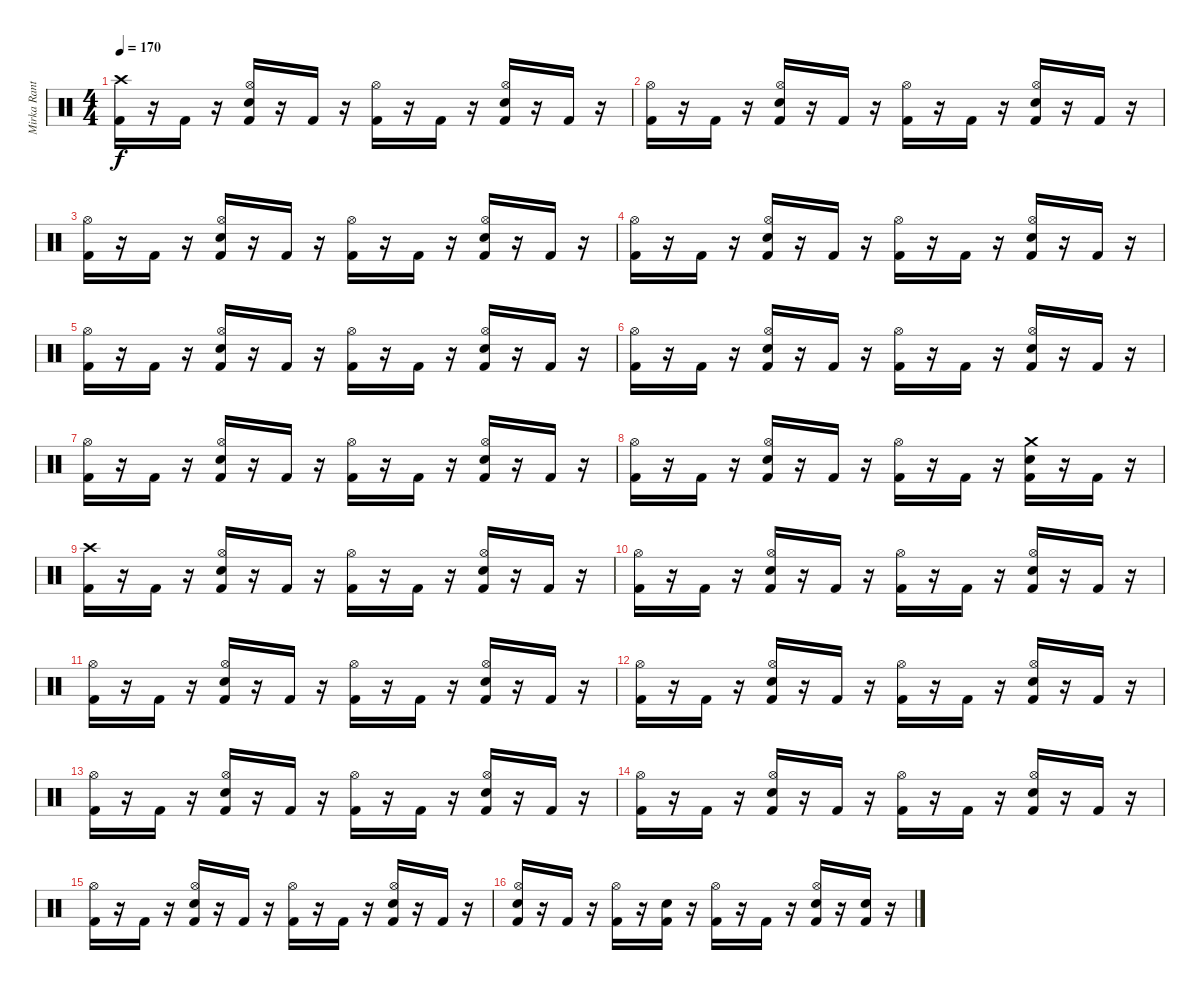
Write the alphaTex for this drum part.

\track ("Mirka Rantanen" "Mirka Rant") {instrument percussion}
\staff {score}
\articulation defaults
\ts (4 4)
\tempo 170
\clef neutral
\ks c
("Crash high (hit)" "Kick (hit) 2").16{dy f} r.16 "Kick (hit) 2".16 r.16 ("Hi-Hat (open)" "Snare (hit) 2" "Kick (hit) 2").16 r.16 "Kick (hit) 2".16 r.16 ("Hi-Hat (open)" "Kick (hit) 2").16 r.16 "Kick (hit) 2".16 r.16 ("Hi-Hat (open)" "Snare (hit) 2" "Kick (hit) 2").16 r.16 "Kick (hit) 2".16 r.16 |
("Hi-Hat (open)" "Kick (hit) 2").16 r.16 "Kick (hit) 2".16 r.16 ("Hi-Hat (open)" "Snare (hit) 2" "Kick (hit) 2").16 r.16 "Kick (hit) 2".16 r.16 ("Hi-Hat (open)" "Kick (hit) 2").16 r.16 "Kick (hit) 2".16 r.16 ("Hi-Hat (open)" "Snare (hit) 2" "Kick (hit) 2").16 r.16 "Kick (hit) 2".16 r.16 |
("Hi-Hat (open)" "Kick (hit) 2").16 r.16 "Kick (hit) 2".16 r.16 ("Hi-Hat (open)" "Snare (hit) 2" "Kick (hit) 2").16 r.16 "Kick (hit) 2".16 r.16 ("Hi-Hat (open)" "Kick (hit) 2").16 r.16 "Kick (hit) 2".16 r.16 ("Hi-Hat (open)" "Snare (hit) 2" "Kick (hit) 2").16 r.16 "Kick (hit) 2".16 r.16 |
("Hi-Hat (open)" "Kick (hit) 2").16 r.16 "Kick (hit) 2".16 r.16 ("Hi-Hat (open)" "Snare (hit) 2" "Kick (hit) 2").16 r.16 "Kick (hit) 2".16 r.16 ("Hi-Hat (open)" "Kick (hit) 2").16 r.16 "Kick (hit) 2".16 r.16 ("Hi-Hat (open)" "Snare (hit) 2" "Kick (hit) 2").16 r.16 "Kick (hit) 2".16 r.16 |
("Hi-Hat (open)" "Kick (hit) 2").16 r.16 "Kick (hit) 2".16 r.16 ("Hi-Hat (open)" "Snare (hit) 2" "Kick (hit) 2").16 r.16 "Kick (hit) 2".16 r.16 ("Hi-Hat (open)" "Kick (hit) 2").16 r.16 "Kick (hit) 2".16 r.16 ("Hi-Hat (open)" "Snare (hit) 2" "Kick (hit) 2").16 r.16 "Kick (hit) 2".16 r.16 |
("Hi-Hat (open)" "Kick (hit) 2").16 r.16 "Kick (hit) 2".16 r.16 ("Hi-Hat (open)" "Snare (hit) 2" "Kick (hit) 2").16 r.16 "Kick (hit) 2".16 r.16 ("Hi-Hat (open)" "Kick (hit) 2").16 r.16 "Kick (hit) 2".16 r.16 ("Hi-Hat (open)" "Snare (hit) 2" "Kick (hit) 2").16 r.16 "Kick (hit) 2".16 r.16 |
("Hi-Hat (open)" "Kick (hit) 2").16 r.16 "Kick (hit) 2".16 r.16 ("Hi-Hat (open)" "Snare (hit) 2" "Kick (hit) 2").16 r.16 "Kick (hit) 2".16 r.16 ("Hi-Hat (open)" "Kick (hit) 2").16 r.16 "Kick (hit) 2".16 r.16 ("Hi-Hat (open)" "Snare (hit) 2" "Kick (hit) 2").16 r.16 "Kick (hit) 2".16 r.16 |
("Hi-Hat (open)" "Kick (hit) 2").16 r.16 "Kick (hit) 2".16 r.16 ("Hi-Hat (open)" "Snare (hit) 2" "Kick (hit) 2").16 r.16 "Kick (hit) 2".16 r.16 ("Hi-Hat (open)" "Kick (hit) 2").16 r.16 "Kick (hit) 2".16 r.16 ("Crash medium (hit)" "Snare (hit) 2" "Kick (hit) 2").16 r.16 "Kick (hit) 2".16 r.16 |
("Crash high (hit)" "Kick (hit) 2").16 r.16 "Kick (hit) 2".16 r.16 ("Hi-Hat (open)" "Snare (hit) 2" "Kick (hit) 2").16 r.16 "Kick (hit) 2".16 r.16 ("Hi-Hat (open)" "Kick (hit) 2").16 r.16 "Kick (hit) 2".16 r.16 ("Hi-Hat (open)" "Snare (hit) 2" "Kick (hit) 2").16 r.16 "Kick (hit) 2".16 r.16 |
("Hi-Hat (open)" "Kick (hit) 2").16 r.16 "Kick (hit) 2".16 r.16 ("Hi-Hat (open)" "Snare (hit) 2" "Kick (hit) 2").16 r.16 "Kick (hit) 2".16 r.16 ("Hi-Hat (open)" "Kick (hit) 2").16 r.16 "Kick (hit) 2".16 r.16 ("Hi-Hat (open)" "Snare (hit) 2" "Kick (hit) 2").16 r.16 "Kick (hit) 2".16 r.16 |
("Hi-Hat (open)" "Kick (hit) 2").16 r.16 "Kick (hit) 2".16 r.16 ("Hi-Hat (open)" "Snare (hit) 2" "Kick (hit) 2").16 r.16 "Kick (hit) 2".16 r.16 ("Hi-Hat (open)" "Kick (hit) 2").16 r.16 "Kick (hit) 2".16 r.16 ("Hi-Hat (open)" "Snare (hit) 2" "Kick (hit) 2").16 r.16 "Kick (hit) 2".16 r.16 |
("Hi-Hat (open)" "Kick (hit) 2").16 r.16 "Kick (hit) 2".16 r.16 ("Hi-Hat (open)" "Snare (hit) 2" "Kick (hit) 2").16 r.16 "Kick (hit) 2".16 r.16 ("Hi-Hat (open)" "Kick (hit) 2").16 r.16 "Kick (hit) 2".16 r.16 ("Hi-Hat (open)" "Snare (hit) 2" "Kick (hit) 2").16 r.16 "Kick (hit) 2".16 r.16 |
("Hi-Hat (open)" "Kick (hit) 2").16 r.16 "Kick (hit) 2".16 r.16 ("Hi-Hat (open)" "Snare (hit) 2" "Kick (hit) 2").16 r.16 "Kick (hit) 2".16 r.16 ("Hi-Hat (open)" "Kick (hit) 2").16 r.16 "Kick (hit) 2".16 r.16 ("Hi-Hat (open)" "Snare (hit) 2" "Kick (hit) 2").16 r.16 "Kick (hit) 2".16 r.16 |
("Hi-Hat (open)" "Kick (hit) 2").16 r.16 "Kick (hit) 2".16 r.16 ("Hi-Hat (open)" "Snare (hit) 2" "Kick (hit) 2").16 r.16 "Kick (hit) 2".16 r.16 ("Hi-Hat (open)" "Kick (hit) 2").16 r.16 "Kick (hit) 2".16 r.16 ("Hi-Hat (open)" "Snare (hit) 2" "Kick (hit) 2").16 r.16 "Kick (hit) 2".16 r.16 |
("Hi-Hat (open)" "Kick (hit) 2").16 r.16 "Kick (hit) 2".16 r.16 ("Hi-Hat (open)" "Snare (hit) 2" "Kick (hit) 2").16 r.16 "Kick (hit) 2".16 r.16 ("Hi-Hat (open)" "Kick (hit) 2").16 r.16 "Kick (hit) 2".16 r.16 ("Hi-Hat (open)" "Snare (hit) 2" "Kick (hit) 2").16 r.16 "Kick (hit) 2".16 r.16 |
("Hi-Hat (open)" "Snare (hit) 2" "Kick (hit) 2").16 r.16 "Kick (hit) 2".16 r.16 ("Hi-Hat (open)" "Kick (hit) 2").16 r.16 ("Snare (hit) 2" "Kick (hit) 2").16 r.16 ("Hi-Hat (open)" "Kick (hit) 2").16 r.16 "Kick (hit) 2".16 r.16 ("Hi-Hat (open)" "Snare (hit) 2" "Kick (hit) 2").16 r.16 ("Snare (hit) 2" "Kick (hit) 2").16 r.16
